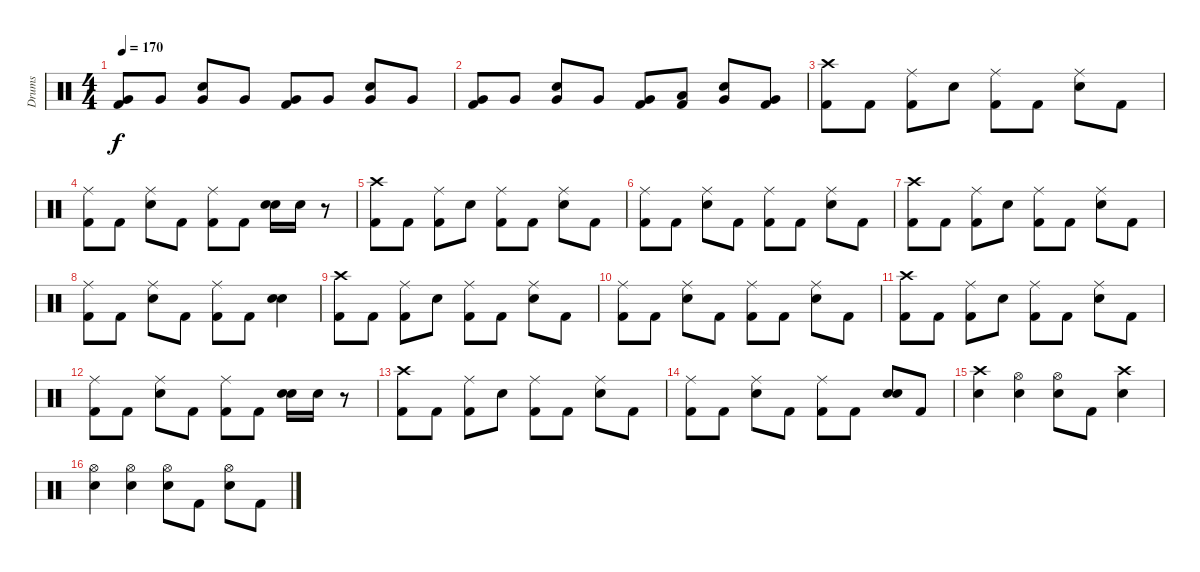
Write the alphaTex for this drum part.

\track ("Drums" "Drums") {instrument percussion}
\staff {score}
\articulation defaults
\ts (4 4)
\tempo 170
\clef neutral
\ks c
("Very Low Tom (hit)" "Kick (hit) 2").8{dy f} "Very Low Tom (hit)".8 ("Very Low Tom (hit)" "Snare (hit) 2").8 "Very Low Tom (hit)".8 ("Very Low Tom (hit)" "Kick (hit) 2").8 "Very Low Tom (hit)".8 ("Very Low Tom (hit)" "Snare (hit) 2").8 "Very Low Tom (hit)".8 |
("Very Low Tom (hit)" "Kick (hit) 2").8 "Very Low Tom (hit)".8 ("Very Low Tom (hit)" "Snare (hit) 2").8 "Very Low Tom (hit)".8 ("Very Low Tom (hit)" "Kick (hit) 2").8 ("Low Tom (hit)" "Kick (hit) 2").8 ("Very Low Tom (hit)" "Snare (hit) 2").8 ("Very Low Tom (hit)" "Kick (hit) 2").8 |
("Crash high (hit)" "Kick (hit) 2").8 "Kick (hit) 2".8 ("Ride (middle)" "Kick (hit) 2").8 "Snare (hit) 2".8 ("Ride (middle)" "Kick (hit) 2").8 "Kick (hit) 2".8 ("Ride (middle)" "Snare (hit) 2").8 "Kick (hit) 2".8 |
("Ride (middle)" "Kick (hit) 2").8 "Kick (hit) 2".8 ("Ride (middle)" "Snare (hit) 2").8 "Kick (hit) 2".8 ("Ride (middle)" "Kick (hit) 2").8 "Kick (hit) 2".8 ("Snare (hit) 2" "Snare (hit) 2").16 "Snare (hit) 2".16 r.8 |
("Crash high (hit)" "Kick (hit) 2").8 "Kick (hit) 2".8 ("Ride (middle)" "Kick (hit) 2").8 "Snare (hit) 2".8 ("Ride (middle)" "Kick (hit) 2").8 "Kick (hit) 2".8 ("Ride (middle)" "Snare (hit) 2").8 "Kick (hit) 2".8 |
("Ride (middle)" "Kick (hit) 2").8 "Kick (hit) 2".8 ("Ride (middle)" "Snare (hit) 2").8 "Kick (hit) 2".8 ("Ride (middle)" "Kick (hit) 2").8 "Kick (hit) 2".8 ("Ride (middle)" "Snare (hit) 2").8 "Kick (hit) 2".8 |
("Crash high (hit)" "Kick (hit) 2").8 "Kick (hit) 2".8 ("Ride (middle)" "Kick (hit) 2").8 "Snare (hit) 2".8 ("Ride (middle)" "Kick (hit) 2").8 "Kick (hit) 2".8 ("Ride (middle)" "Snare (hit) 2").8 "Kick (hit) 2".8 |
("Ride (middle)" "Kick (hit) 2").8 "Kick (hit) 2".8 ("Ride (middle)" "Snare (hit) 2").8 "Kick (hit) 2".8 ("Ride (middle)" "Kick (hit) 2").8 "Kick (hit) 2".8 ("Snare (hit) 2" "Snare (hit) 2").4 |
("Crash high (hit)" "Kick (hit) 2").8 "Kick (hit) 2".8 ("Ride (middle)" "Kick (hit) 2").8 "Snare (hit) 2".8 ("Ride (middle)" "Kick (hit) 2").8 "Kick (hit) 2".8 ("Ride (middle)" "Snare (hit) 2").8 "Kick (hit) 2".8 |
("Ride (middle)" "Kick (hit) 2").8 "Kick (hit) 2".8 ("Ride (middle)" "Snare (hit) 2").8 "Kick (hit) 2".8 ("Ride (middle)" "Kick (hit) 2").8 "Kick (hit) 2".8 ("Ride (middle)" "Snare (hit) 2").8 "Kick (hit) 2".8 |
("Crash high (hit)" "Kick (hit) 2").8 "Kick (hit) 2".8 ("Ride (middle)" "Kick (hit) 2").8 "Snare (hit) 2".8 ("Ride (middle)" "Kick (hit) 2").8 "Kick (hit) 2".8 ("Ride (middle)" "Snare (hit) 2").8 "Kick (hit) 2".8 |
("Ride (middle)" "Kick (hit) 2").8 "Kick (hit) 2".8 ("Ride (middle)" "Snare (hit) 2").8 "Kick (hit) 2".8 ("Ride (middle)" "Kick (hit) 2").8 "Kick (hit) 2".8 ("Snare (hit) 2" "Snare (hit) 2").16 "Snare (hit) 2".16 r.8 |
("Crash high (hit)" "Kick (hit) 2").8 "Kick (hit) 2".8 ("Ride (middle)" "Kick (hit) 2").8 "Snare (hit) 2".8 ("Ride (middle)" "Kick (hit) 2").8 "Kick (hit) 2".8 ("Ride (middle)" "Snare (hit) 2").8 "Kick (hit) 2".8 |
("Ride (middle)" "Kick (hit) 2").8 "Kick (hit) 2".8 ("Ride (middle)" "Snare (hit) 2").8 "Kick (hit) 2".8 ("Ride (middle)" "Kick (hit) 2").8 "Kick (hit) 2".8 ("Snare (hit) 2" "Snare (hit) 2").8 "Kick (hit) 2".8 |
("Crash high (hit)" "Snare (hit) 2").4 ("Hi-Hat (open)" "Snare (hit) 2").4 ("Hi-Hat (open)" "Snare (hit) 2").8 "Kick (hit) 2".8 ("Crash high (hit)" "Snare (hit) 2").4 |
("Hi-Hat (open)" "Snare (hit) 2").4 ("Hi-Hat (open)" "Snare (hit) 2").4 ("Hi-Hat (open)" "Snare (hit) 2").8 "Kick (hit) 2".8 ("Hi-Hat (open)" "Snare (hit) 2").8 "Kick (hit) 2".8
